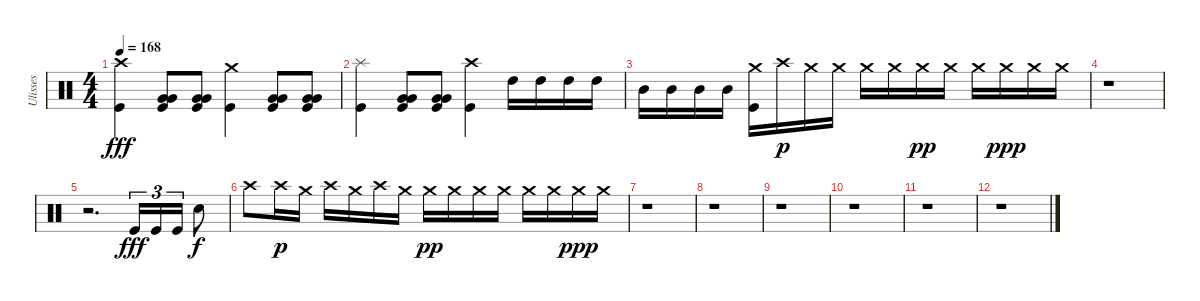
\track ("Ulisses" "Ulisses") {instrument percussion}
\staff {score}
\articulation defaults
\ts (4 4)
\tempo 168
\clef neutral
\ks c
("Crash high (hit)" "Kick (hit)").4{dy fff} ("Very Low Tom (hit)" "Very Low Tom (hit)" "Kick (hit)").8 ("Very Low Tom (hit)" "Very Low Tom (hit)" "Kick (hit)").8 ("Crash medium (hit)" "Kick (hit)").4 ("Very Low Tom (hit)" "Very Low Tom (hit)" "Kick (hit)").8 ("Very Low Tom (hit)" "Very Low Tom (hit)" "Kick (hit)").8 |
("Splash (hit)" "Kick (hit)").4 ("Very Low Tom (hit)" "Very Low Tom (hit)" "Kick (hit)").8 ("Very Low Tom (hit)" "Very Low Tom (hit)" "Kick (hit)").8 ("Crash high (hit)" "Kick (hit)").4 "High Tom (hit)".16 "High Tom (hit)".16 "High Tom (hit)".16 "High Tom (hit)".16 |
"Mid Tom (hit)".16 "Mid Tom (hit)".16 "Mid Tom (hit)".16 "Mid Tom (hit)".16 ("Crash medium (hit)" "Kick (hit)").16 "Crash high (hit)".16{dy p} "Crash medium (hit)".16 "Crash medium (hit)".16 "Crash medium (hit)".16 "Crash medium (hit)".16 "Crash medium (hit)".16{dy pp} "Crash medium (hit)".16 "Crash medium (hit)".16 "Crash medium (hit)".16{dy ppp} "Crash medium (hit)".16 "Crash medium (hit)".16 |
r.1 |
r.2{d} "Kick (hit)".16{tu (3 2) dy fff} "Kick (hit)".16{tu (3 2)} "Kick (hit)".16{tu (3 2)} "Snare (hit) 2".8{dy f} |
"Crash high (hit)".8 "Crash high (hit)".16{dy p} "Crash medium (hit)".16 "Crash high (hit)".16 "Crash medium (hit)".16 "Crash high (hit)".16 "Crash medium (hit)".16 "Crash medium (hit)".16{dy pp} "Crash medium (hit)".16 "Crash medium (hit)".16 "Crash medium (hit)".16 "Crash medium (hit)".16 "Crash medium (hit)".16 "Crash medium (hit)".16{dy ppp} "Crash medium (hit)".16 |
r.1 |
r.1 |
r.1 |
r.1 |
r.1 |
r.1
